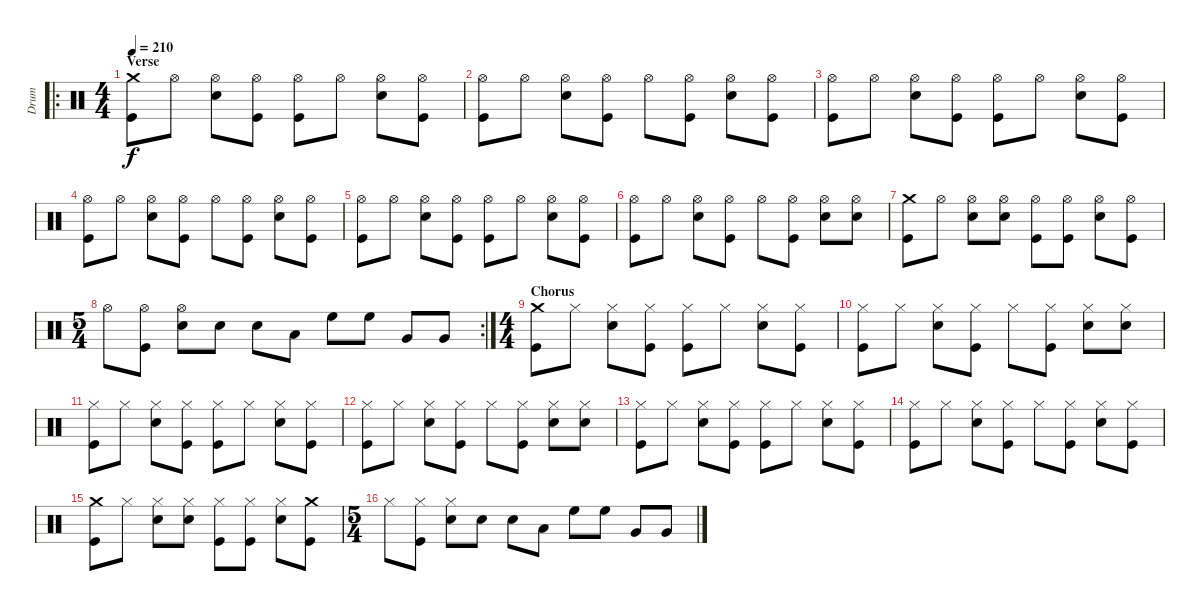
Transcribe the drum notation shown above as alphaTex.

\track ("Drum" "Drum") {instrument percussion}
\staff {score}
\articulation defaults
\ro
\ts (4 4)
\section ("" "Verse")
\tempo 210
\clef neutral
\ks c
("Crash medium (hit)" "Kick (hit)").8{dy f} "Hi-Hat (open)".8 ("Hi-Hat (open)" "Snare (hit) 2").8 ("Hi-Hat (open)" "Kick (hit)").8 ("Hi-Hat (open)" "Kick (hit)").8 "Hi-Hat (open)".8 ("Hi-Hat (open)" "Snare (hit) 2").8 ("Hi-Hat (open)" "Kick (hit)").8 |
("Hi-Hat (open)" "Kick (hit)").8 "Hi-Hat (open)".8 ("Hi-Hat (open)" "Snare (hit) 2").8 ("Hi-Hat (open)" "Kick (hit)").8 "Hi-Hat (open)".8 ("Hi-Hat (open)" "Kick (hit)").8 ("Hi-Hat (open)" "Snare (hit) 2").8 ("Hi-Hat (open)" "Kick (hit)").8 |
("Hi-Hat (open)" "Kick (hit)").8 "Hi-Hat (open)".8 ("Hi-Hat (open)" "Snare (hit) 2").8 ("Hi-Hat (open)" "Kick (hit)").8 ("Hi-Hat (open)" "Kick (hit)").8 "Hi-Hat (open)".8 ("Hi-Hat (open)" "Snare (hit) 2").8 ("Hi-Hat (open)" "Kick (hit)").8 |
("Hi-Hat (open)" "Kick (hit)").8 "Hi-Hat (open)".8 ("Hi-Hat (open)" "Snare (hit) 2").8 ("Hi-Hat (open)" "Kick (hit)").8 "Hi-Hat (open)".8 ("Hi-Hat (open)" "Kick (hit)").8 ("Hi-Hat (open)" "Snare (hit) 2").8 ("Hi-Hat (open)" "Kick (hit)").8 |
("Hi-Hat (open)" "Kick (hit)").8 "Hi-Hat (open)".8 ("Hi-Hat (open)" "Snare (hit) 2").8 ("Hi-Hat (open)" "Kick (hit)").8 ("Hi-Hat (open)" "Kick (hit)").8 "Hi-Hat (open)".8 ("Hi-Hat (open)" "Snare (hit) 2").8 ("Hi-Hat (open)" "Kick (hit)").8 |
("Hi-Hat (open)" "Kick (hit)").8 "Hi-Hat (open)".8 ("Hi-Hat (open)" "Snare (hit) 2").8 ("Hi-Hat (open)" "Kick (hit)").8 "Hi-Hat (open)".8 ("Hi-Hat (open)" "Kick (hit)").8 ("Hi-Hat (open)" "Snare (hit) 2").8 ("Hi-Hat (open)" "Snare (hit) 2").8 |
("Crash medium (hit)" "Kick (hit)").8 "Hi-Hat (open)".8 ("Hi-Hat (open)" "Snare (hit) 2").8 ("Hi-Hat (open)" "Snare (hit) 2").8 ("Hi-Hat (open)" "Kick (hit)").8 ("Hi-Hat (open)" "Kick (hit)").8 ("Hi-Hat (open)" "Snare (hit) 2").8 ("Hi-Hat (open)" "Kick (hit)").8 |
\rc 2
\ts (5 4)
"Hi-Hat (open)".8 ("Hi-Hat (open)" "Kick (hit)").8 ("Hi-Hat (open)" "Snare (hit) 2").8 "Snare (hit) 2".8 "Snare (hit) 2".8 "Low Tom (hit)".8 "High Floor Tom (hit)".8 "High Floor Tom (hit)".8 "Very Low Tom (hit)".8 "Very Low Tom (hit)".8 |
\ts (4 4)
\section ("" "Chorus")
("Crash medium (hit)" "Kick (hit)").8 "Hi-Hat (closed)".8 ("Hi-Hat (closed)" "Snare (hit) 2").8 ("Hi-Hat (closed)" "Kick (hit)").8 ("Hi-Hat (closed)" "Kick (hit)").8 "Hi-Hat (closed)".8 ("Hi-Hat (closed)" "Snare (hit) 2").8 ("Hi-Hat (closed)" "Kick (hit)").8 |
("Hi-Hat (closed)" "Kick (hit)").8 "Hi-Hat (closed)".8 ("Hi-Hat (closed)" "Snare (hit) 2").8 ("Hi-Hat (closed)" "Kick (hit)").8 "Hi-Hat (closed)".8 ("Hi-Hat (closed)" "Kick (hit)").8 ("Hi-Hat (closed)" "Snare (hit) 2").8 ("Hi-Hat (closed)" "Snare (hit) 2").8 |
("Hi-Hat (closed)" "Kick (hit)").8 "Hi-Hat (closed)".8 ("Hi-Hat (closed)" "Snare (hit) 2").8 ("Hi-Hat (closed)" "Kick (hit)").8 ("Hi-Hat (closed)" "Kick (hit)").8 "Hi-Hat (closed)".8 ("Hi-Hat (closed)" "Snare (hit) 2").8 ("Hi-Hat (closed)" "Kick (hit)").8 |
("Hi-Hat (closed)" "Kick (hit)").8 "Hi-Hat (closed)".8 ("Hi-Hat (closed)" "Snare (hit) 2").8 ("Hi-Hat (closed)" "Kick (hit)").8 "Hi-Hat (closed)".8 ("Hi-Hat (closed)" "Kick (hit)").8 ("Hi-Hat (closed)" "Snare (hit) 2").8 ("Hi-Hat (closed)" "Snare (hit) 2").8 |
("Hi-Hat (closed)" "Kick (hit)").8 "Hi-Hat (closed)".8 ("Hi-Hat (closed)" "Snare (hit) 2").8 ("Hi-Hat (closed)" "Kick (hit)").8 ("Hi-Hat (closed)" "Kick (hit)").8 "Hi-Hat (closed)".8 ("Hi-Hat (closed)" "Snare (hit) 2").8 ("Hi-Hat (closed)" "Kick (hit)").8 |
("Hi-Hat (closed)" "Kick (hit)").8 "Hi-Hat (closed)".8 ("Hi-Hat (closed)" "Snare (hit) 2").8 ("Hi-Hat (closed)" "Kick (hit)").8 "Hi-Hat (closed)".8 ("Hi-Hat (closed)" "Kick (hit)").8 ("Hi-Hat (closed)" "Snare (hit) 2").8 ("Hi-Hat (closed)" "Kick (hit)").8 |
("Crash medium (hit)" "Kick (hit)").8 "Hi-Hat (closed)".8 ("Hi-Hat (closed)" "Snare (hit) 2").8 ("Hi-Hat (closed)" "Snare (hit) 2").8 ("Hi-Hat (closed)" "Kick (hit)").8 ("Hi-Hat (closed)" "Kick (hit)").8 ("Hi-Hat (closed)" "Snare (hit) 2").8 ("Crash medium (hit)" "Kick (hit)").8 |
\ts (5 4)
"Hi-Hat (closed)".8 ("Hi-Hat (closed)" "Kick (hit)").8 ("Hi-Hat (closed)" "Snare (hit) 2").8 "Snare (hit) 2".8 "Snare (hit) 2".8 "Low Tom (hit)".8 "High Floor Tom (hit)".8 "High Floor Tom (hit)".8 "Very Low Tom (hit)".8 "Very Low Tom (hit)".8
